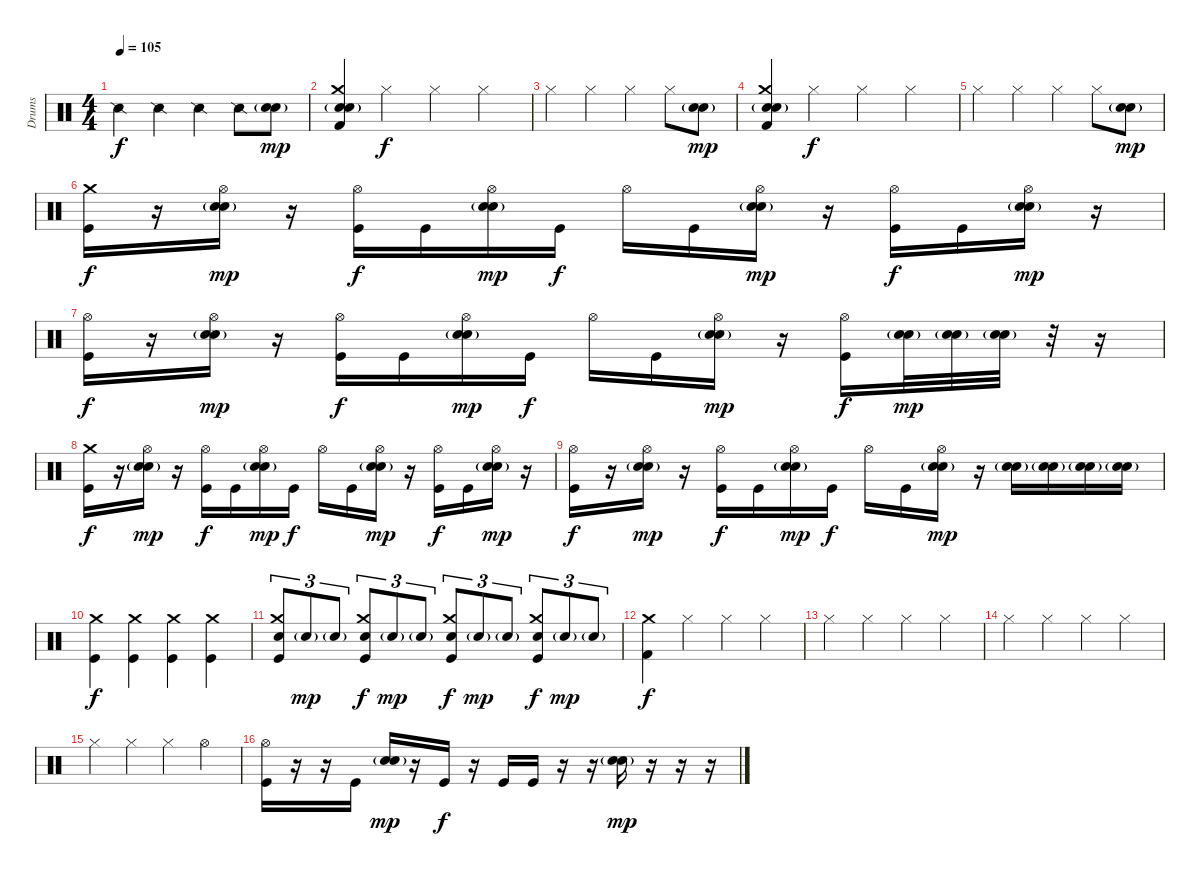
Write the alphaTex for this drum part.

\track ("Drums" "Drums") {instrument percussion}
\staff {score}
\articulation defaults
\ts (4 4)
\tempo 105
\clef neutral
\ks c "Snare (side stick) 2".4{dy f} "Snare (side stick) 2".4 "Snare (side stick) 2".4 "Snare (side stick) 2".8
("Snare (hit) 2"{g} "Snare (hit) 2").8{dy mp} |
("Crash medium (hit)" "Snare (hit) 2"{g} "Snare (hit) 2" "Kick (hit) 2").4 "Hi-Hat (closed)".4{dy f} "Hi-Hat (closed)".4 "Hi-Hat (closed)".4 |
"Hi-Hat (closed)".4 "Hi-Hat (closed)".4 "Hi-Hat (closed)".4 "Hi-Hat (closed)".8 ("Snare (hit) 2"{g} "Snare (hit) 2").8{dy mp} |
("Crash medium (hit)" "Snare (hit) 2"{g} "Snare (hit) 2" "Kick (hit) 2").4 "Hi-Hat (closed)".4{dy f} "Hi-Hat (closed)".4 "Hi-Hat (closed)".4 |
"Hi-Hat (closed)".4 "Hi-Hat (closed)".4 "Hi-Hat (closed)".4 "Hi-Hat (closed)".8 ("Snare (hit) 2"{g} "Snare (hit) 2").8{dy mp} |
("Crash medium (hit)" "Kick (hit)").16{dy f} r.16 ("Hi-Hat (open)" "Snare (hit) 2"{g} "Snare (hit) 2").16{dy mp} r.16 ("Hi-Hat (open)" "Kick (hit)").16{dy f} "Kick (hit)".16 ("Hi-Hat (open)" "Snare (hit) 2"{g} "Snare (hit) 2").16{dy mp} "Kick (hit)".16{dy f} "Hi-Hat (open)".16 "Kick (hit)".16 ("Hi-Hat (open)" "Snare (hit) 2"{g} "Snare (hit) 2").16{dy mp} r.16 ("Hi-Hat (open)" "Kick (hit)").16{dy f} "Kick (hit)".16 ("Hi-Hat (open)" "Snare (hit) 2"{g} "Snare (hit) 2").16{dy mp} r.16 |
("Hi-Hat (open)" "Kick (hit)").16{dy f} r.16 ("Hi-Hat (open)" "Snare (hit) 2"{g} "Snare (hit) 2").16{dy mp} r.16 ("Hi-Hat (open)" "Kick (hit)").16{dy f} "Kick (hit)".16 ("Hi-Hat (open)" "Snare (hit) 2"{g} "Snare (hit) 2").16{dy mp} "Kick (hit)".16{dy f} "Hi-Hat (open)".16 "Kick (hit)".16 ("Hi-Hat (open)" "Snare (hit) 2"{g} "Snare (hit) 2").16{dy mp} r.16 ("Hi-Hat (open)" "Kick (hit)").16{dy f} ("Snare (hit) 2"{g} "Snare (hit) 2").32{dy mp} ("Snare (hit) 2"{g} "Snare (hit) 2").32 ("Snare (hit) 2"{g} "Snare (hit) 2").32 r.32 r.16 |
("Crash medium (hit)" "Kick (hit)").16{dy f} r.16 ("Hi-Hat (open)" "Snare (hit) 2"{g} "Snare (hit) 2").16{dy mp} r.16 ("Hi-Hat (open)" "Kick (hit)").16{dy f} "Kick (hit)".16 ("Hi-Hat (open)" "Snare (hit) 2"{g} "Snare (hit) 2").16{dy mp} "Kick (hit)".16{dy f} "Hi-Hat (open)".16 "Kick (hit)".16 ("Hi-Hat (open)" "Snare (hit) 2"{g} "Snare (hit) 2").16{dy mp} r.16 ("Hi-Hat (open)" "Kick (hit)").16{dy f} "Kick (hit)".16 ("Hi-Hat (open)" "Snare (hit) 2"{g} "Snare (hit) 2").16{dy mp} r.16 |
("Hi-Hat (open)" "Kick (hit)").16{dy f} r.16 ("Hi-Hat (open)" "Snare (hit) 2"{g} "Snare (hit) 2").16{dy mp} r.16 ("Hi-Hat (open)" "Kick (hit)").16{dy f} "Kick (hit)".16 ("Hi-Hat (open)" "Snare (hit) 2"{g} "Snare (hit) 2").16{dy mp} "Kick (hit)".16{dy f} "Hi-Hat (open)".16 "Kick (hit)".16 ("Hi-Hat (open)" "Snare (hit) 2"{g} "Snare (hit) 2").16{dy mp} r.16 ("Snare (hit) 2"{g} "Snare (hit) 2").16 ("Snare (hit) 2"{g} "Snare (hit) 2").16 ("Snare (hit) 2"{g} "Snare (hit) 2").16 ("Snare (hit) 2"{g} "Snare (hit) 2").16 |
("Crash medium (hit)" "Kick (hit)").4{dy f} ("Crash medium (hit)" "Kick (hit)").4 ("Crash medium (hit)" "Kick (hit)").4 ("Crash medium (hit)" "Kick (hit)").4 |
("Crash medium (hit)" "Snare (hit) 2" "Kick (hit)").8{tu (3 2)} "Snare (hit) 2"{g}.8{tu (3 2) dy mp} "Snare (hit) 2"{g}.8{tu (3 2)} ("Crash medium (hit)" "Snare (hit) 2" "Kick (hit)").8{tu (3 2) dy f} "Snare (hit) 2"{g}.8{tu (3 2) dy mp} "Snare (hit) 2"{g}.8{tu (3 2)} ("Crash medium (hit)" "Snare (hit) 2" "Kick (hit)").8{tu (3 2) dy f} "Snare (hit) 2"{g}.8{tu (3 2) dy mp} "Snare (hit) 2"{g}.8{tu (3 2)} ("Crash medium (hit)" "Snare (hit) 2" "Kick (hit)").8{tu (3 2) dy f} "Snare (hit) 2"{g}.8{tu (3 2) dy mp} "Snare (hit) 2"{g}.8{tu (3 2)} |
("Crash medium (hit)" "Kick (hit) 2").4{dy f} "Hi-Hat (closed)".4 "Hi-Hat (closed)".4 "Hi-Hat (closed)".4 |
"Hi-Hat (closed)".4 "Hi-Hat (closed)".4 "Hi-Hat (closed)".4 "Hi-Hat (closed)".4 |
"Hi-Hat (closed)".4 "Hi-Hat (closed)".4 "Hi-Hat (closed)".4 "Hi-Hat (closed)".4 |
"Hi-Hat (closed)".4 "Hi-Hat (closed)".4 "Hi-Hat (closed)".4 "Hi-Hat (open)".4 |
("Hi-Hat (open)" "Kick (hit)").16 r.16 r.16 "Kick (hit)".16 ("Snare (hit) 2"{g} "Snare (hit) 2").16{dy mp} r.16 "Kick (hit)".16{dy f} r.16 "Kick (hit)".16 "Kick (hit)".16 r.16 r.16 ("Snare (hit) 2"{g} "Snare (hit) 2").16{dy mp} r.16 r.16 r.16
